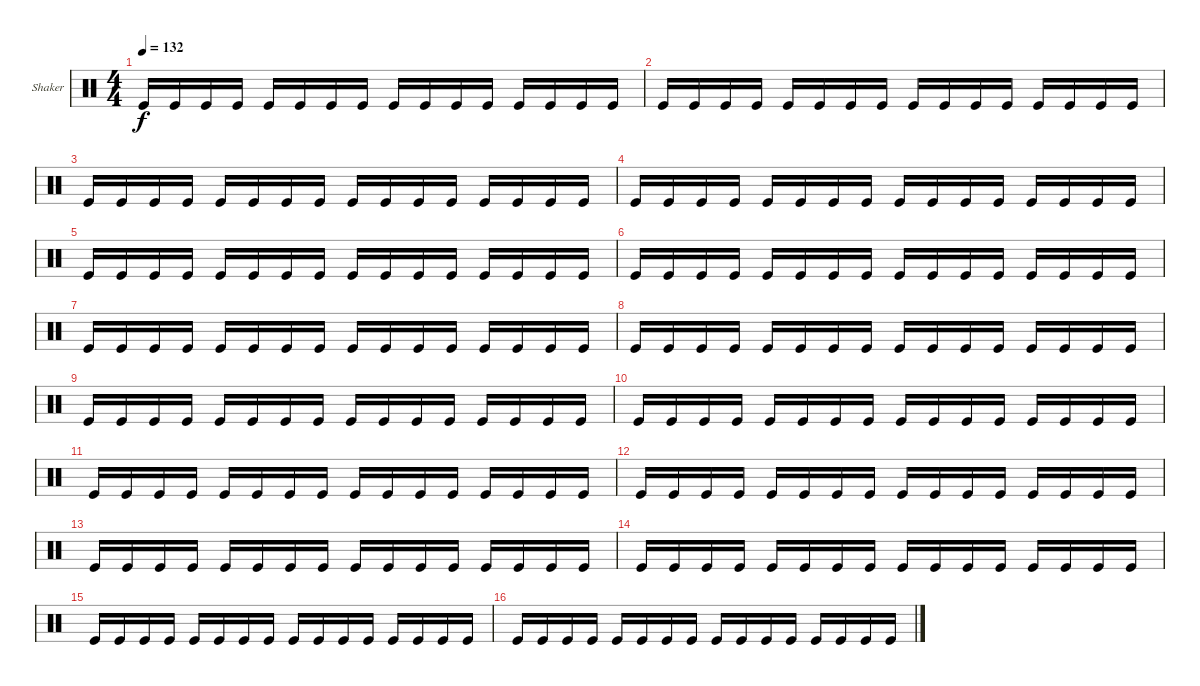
\defaultSystemsLayout 4
\bracketExtendMode groupsimilarinstruments
\firstSystemTrackNameOrientation horizontal
\otherSystemsTrackNameOrientation horizontal
\track ("Shaker" "Shaker") {instrument percussion}
\staff {score}
\articulation defaults
\ts (4 4)
\tempo 132
\clef neutral
\scale
0.333333
\ks c "Kick (hit)".16{dy f} "Kick (hit)".16 "Kick (hit)".16 "Kick (hit)".16 "Kick (hit)".16 "Kick (hit)".16 "Kick (hit)".16 "Kick (hit)".16 "Kick (hit)".16 "Kick (hit)".16 "Kick (hit)".16 "Kick (hit)".16 "Kick (hit)".16 "Kick (hit)".16 "Kick (hit)".16 "Kick (hit)".16
|
\scale
0.333333 "Kick (hit)".16 "Kick (hit)".16 "Kick (hit)".16 "Kick (hit)".16 "Kick (hit)".16 "Kick (hit)".16 "Kick (hit)".16 "Kick (hit)".16 "Kick (hit)".16 "Kick (hit)".16 "Kick (hit)".16 "Kick (hit)".16 "Kick (hit)".16 "Kick (hit)".16 "Kick (hit)".16 "Kick (hit)".16 |
\scale
0.333333 "Kick (hit)".16 "Kick (hit)".16 "Kick (hit)".16 "Kick (hit)".16 "Kick (hit)".16 "Kick (hit)".16 "Kick (hit)".16 "Kick (hit)".16 "Kick (hit)".16 "Kick (hit)".16 "Kick (hit)".16 "Kick (hit)".16 "Kick (hit)".16 "Kick (hit)".16 "Kick (hit)".16 "Kick (hit)".16 |
\scale
0.333333 "Kick (hit)".16 "Kick (hit)".16 "Kick (hit)".16 "Kick (hit)".16 "Kick (hit)".16 "Kick (hit)".16 "Kick (hit)".16 "Kick (hit)".16 "Kick (hit)".16 "Kick (hit)".16 "Kick (hit)".16 "Kick (hit)".16 "Kick (hit)".16 "Kick (hit)".16 "Kick (hit)".16 "Kick (hit)".16 |
\scale
0.333333 "Kick (hit)".16 "Kick (hit)".16 "Kick (hit)".16 "Kick (hit)".16 "Kick (hit)".16 "Kick (hit)".16 "Kick (hit)".16 "Kick (hit)".16 "Kick (hit)".16 "Kick (hit)".16 "Kick (hit)".16 "Kick (hit)".16 "Kick (hit)".16 "Kick (hit)".16 "Kick (hit)".16 "Kick (hit)".16 |
\scale
0.333333 "Kick (hit)".16 "Kick (hit)".16 "Kick (hit)".16 "Kick (hit)".16 "Kick (hit)".16 "Kick (hit)".16 "Kick (hit)".16 "Kick (hit)".16 "Kick (hit)".16 "Kick (hit)".16 "Kick (hit)".16 "Kick (hit)".16 "Kick (hit)".16 "Kick (hit)".16 "Kick (hit)".16 "Kick (hit)".16 |
\scale
0.333333 "Kick (hit)".16 "Kick (hit)".16 "Kick (hit)".16 "Kick (hit)".16 "Kick (hit)".16 "Kick (hit)".16 "Kick (hit)".16 "Kick (hit)".16 "Kick (hit)".16 "Kick (hit)".16 "Kick (hit)".16 "Kick (hit)".16 "Kick (hit)".16 "Kick (hit)".16 "Kick (hit)".16 "Kick (hit)".16 |
\scale
0.333333 "Kick (hit)".16 "Kick (hit)".16 "Kick (hit)".16 "Kick (hit)".16 "Kick (hit)".16 "Kick (hit)".16 "Kick (hit)".16 "Kick (hit)".16 "Kick (hit)".16 "Kick (hit)".16 "Kick (hit)".16 "Kick (hit)".16 "Kick (hit)".16 "Kick (hit)".16 "Kick (hit)".16 "Kick (hit)".16 |
\scale
0.333333 "Kick (hit)".16 "Kick (hit)".16 "Kick (hit)".16 "Kick (hit)".16 "Kick (hit)".16 "Kick (hit)".16 "Kick (hit)".16 "Kick (hit)".16 "Kick (hit)".16 "Kick (hit)".16 "Kick (hit)".16 "Kick (hit)".16 "Kick (hit)".16 "Kick (hit)".16 "Kick (hit)".16 "Kick (hit)".16 |
\scale
0.333333 "Kick (hit)".16 "Kick (hit)".16 "Kick (hit)".16 "Kick (hit)".16 "Kick (hit)".16 "Kick (hit)".16 "Kick (hit)".16 "Kick (hit)".16 "Kick (hit)".16 "Kick (hit)".16 "Kick (hit)".16 "Kick (hit)".16 "Kick (hit)".16 "Kick (hit)".16 "Kick (hit)".16 "Kick (hit)".16 |
\scale
0.333333 "Kick (hit)".16 "Kick (hit)".16 "Kick (hit)".16 "Kick (hit)".16 "Kick (hit)".16 "Kick (hit)".16 "Kick (hit)".16 "Kick (hit)".16 "Kick (hit)".16 "Kick (hit)".16 "Kick (hit)".16 "Kick (hit)".16 "Kick (hit)".16 "Kick (hit)".16 "Kick (hit)".16 "Kick (hit)".16 |
\scale
0.333333 "Kick (hit)".16 "Kick (hit)".16 "Kick (hit)".16 "Kick (hit)".16 "Kick (hit)".16 "Kick (hit)".16 "Kick (hit)".16 "Kick (hit)".16 "Kick (hit)".16 "Kick (hit)".16 "Kick (hit)".16 "Kick (hit)".16 "Kick (hit)".16 "Kick (hit)".16 "Kick (hit)".16 "Kick (hit)".16 |
\scale
0.333333 "Kick (hit)".16 "Kick (hit)".16 "Kick (hit)".16 "Kick (hit)".16 "Kick (hit)".16 "Kick (hit)".16 "Kick (hit)".16 "Kick (hit)".16 "Kick (hit)".16 "Kick (hit)".16 "Kick (hit)".16 "Kick (hit)".16 "Kick (hit)".16 "Kick (hit)".16 "Kick (hit)".16 "Kick (hit)".16 |
\scale
0.333333 "Kick (hit)".16 "Kick (hit)".16 "Kick (hit)".16 "Kick (hit)".16 "Kick (hit)".16 "Kick (hit)".16 "Kick (hit)".16 "Kick (hit)".16 "Kick (hit)".16 "Kick (hit)".16 "Kick (hit)".16 "Kick (hit)".16 "Kick (hit)".16 "Kick (hit)".16 "Kick (hit)".16 "Kick (hit)".16 |
\scale
0.333333 "Kick (hit)".16 "Kick (hit)".16 "Kick (hit)".16 "Kick (hit)".16 "Kick (hit)".16 "Kick (hit)".16 "Kick (hit)".16 "Kick (hit)".16 "Kick (hit)".16 "Kick (hit)".16 "Kick (hit)".16 "Kick (hit)".16 "Kick (hit)".16 "Kick (hit)".16 "Kick (hit)".16 "Kick (hit)".16 |
\scale
0.333333 "Kick (hit)".16 "Kick (hit)".16 "Kick (hit)".16 "Kick (hit)".16 "Kick (hit)".16 "Kick (hit)".16 "Kick (hit)".16 "Kick (hit)".16 "Kick (hit)".16 "Kick (hit)".16 "Kick (hit)".16 "Kick (hit)".16 "Kick (hit)".16 "Kick (hit)".16 "Kick (hit)".16 "Kick (hit)".16
